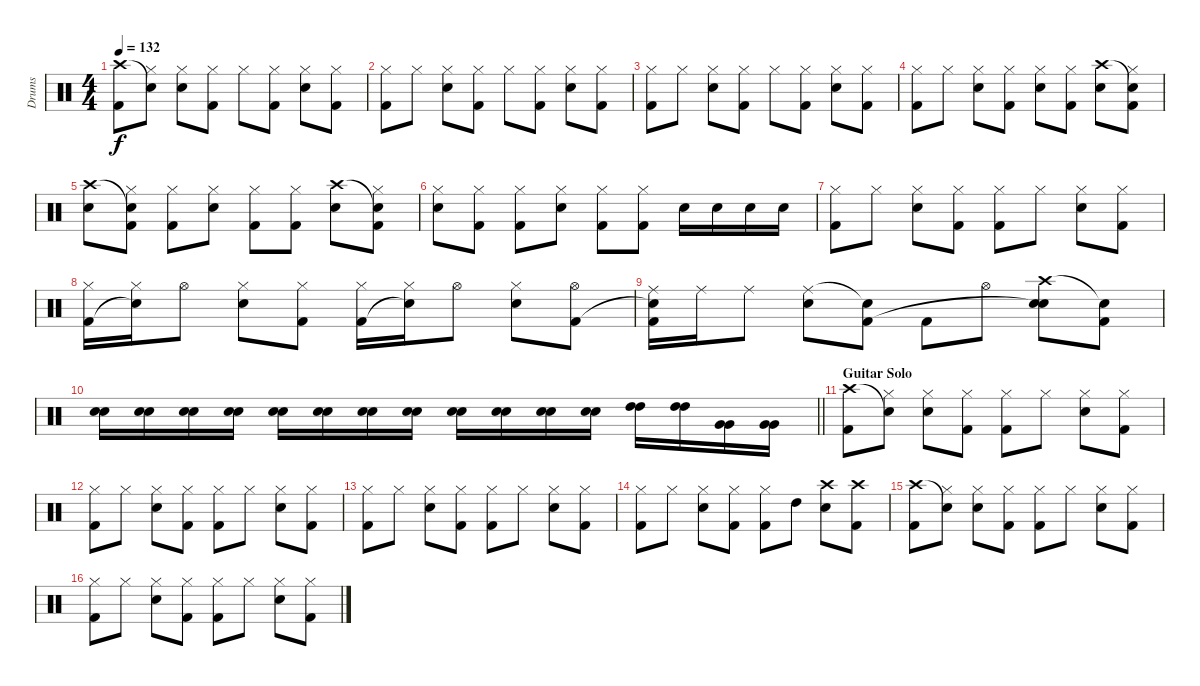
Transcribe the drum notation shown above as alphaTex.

\track ("Drums" "Drums") {instrument percussion}
\staff {score}
\articulation defaults
\ts (4 4)
\tempo 132
\clef neutral
\ks c
("Crash high (hit)" "Kick (hit) 2").8{dy f} ("Snare (hit)"{t} "Hi-Hat (closed)").8 ("Hi-Hat (closed)" "Snare (hit) 2").8 ("Hi-Hat (closed)" "Kick (hit) 2").8 "Hi-Hat (closed)".8 ("Hi-Hat (closed)" "Kick (hit) 2").8 ("Hi-Hat (closed)" "Snare (hit) 2").8 ("Hi-Hat (closed)" "Kick (hit) 2").8 |
("Hi-Hat (closed)" "Kick (hit) 2").8 "Hi-Hat (closed)".8 ("Hi-Hat (closed)" "Snare (hit) 2").8 ("Hi-Hat (closed)" "Kick (hit) 2").8 "Hi-Hat (closed)".8 ("Hi-Hat (closed)" "Kick (hit) 2").8 ("Hi-Hat (closed)" "Snare (hit) 2").8 ("Hi-Hat (closed)" "Kick (hit) 2").8 |
("Hi-Hat (closed)" "Kick (hit) 2").8 "Hi-Hat (closed)".8 ("Hi-Hat (closed)" "Snare (hit) 2").8 ("Hi-Hat (closed)" "Kick (hit) 2").8 "Hi-Hat (closed)".8 ("Hi-Hat (closed)" "Kick (hit) 2").8 ("Hi-Hat (closed)" "Snare (hit) 2").8 ("Hi-Hat (closed)" "Kick (hit) 2").8 |
("Hi-Hat (closed)" "Kick (hit) 2").8 "Hi-Hat (closed)".8 ("Hi-Hat (closed)" "Snare (hit) 2").8 ("Hi-Hat (closed)" "Kick (hit) 2").8 ("Hi-Hat (closed)" "Snare (hit) 2").8 ("Hi-Hat (closed)" "Kick (hit) 2").8 ("Crash high (hit)" "Snare (hit) 2").8 ("Snare (hit)"{t} "Hi-Hat (closed)" "Kick (hit) 2").8 |
("Crash high (hit)" "Snare (hit) 2").8 ("Snare (hit)"{t} "Hi-Hat (closed)" "Kick (hit) 2").8 ("Hi-Hat (closed)" "Kick (hit) 2").8 ("Hi-Hat (closed)" "Snare (hit) 2").8 ("Hi-Hat (closed)" "Kick (hit) 2").8 ("Hi-Hat (closed)" "Kick (hit) 2").8 ("Crash high (hit)" "Snare (hit) 2").8 ("Snare (hit)"{t} "Hi-Hat (closed)" "Kick (hit) 2").8 |
("Hi-Hat (closed)" "Snare (hit) 2").8 ("Hi-Hat (closed)" "Kick (hit) 2").8 ("Hi-Hat (closed)" "Kick (hit) 2").8 ("Hi-Hat (closed)" "Snare (hit) 2").8 ("Hi-Hat (closed)" "Kick (hit) 2").8 ("Hi-Hat (closed)" "Kick (hit) 2").8 "Snare (hit) 2".16 "Snare (hit) 2".16 "Snare (hit) 2".16 "Snare (hit) 2".16 |
("Hi-Hat (closed)" "Kick (hit) 2").8 "Hi-Hat (closed)".8 ("Hi-Hat (closed)" "Snare (hit) 2").8 ("Hi-Hat (closed)" "Kick (hit) 2").8 ("Hi-Hat (closed)" "Kick (hit) 2").8 "Hi-Hat (closed)".8 ("Hi-Hat (closed)" "Snare (hit) 2").8 ("Hi-Hat (closed)" "Kick (hit) 2").8 |
("Hi-Hat (closed)" "Kick (hit) 2").16 ("Hi-Hat (closed)" "Snare (hit)"{t}).16 "Hi-Hat (open)".8 ("Hi-Hat (closed)" "Snare (hit) 2").8 ("Hi-Hat (closed)" "Kick (hit) 2").8 ("Hi-Hat (closed)" "Kick (hit) 2").16 ("Hi-Hat (closed)" "Snare (hit)"{t}).16 "Hi-Hat (open)".8 ("Hi-Hat (closed)" "Snare (hit) 2").8 ("Hi-Hat (open)" "Kick (hit) 2").8 |
("Ride (middle)" "Snare (hit)"{t} "Kick (hit) 2").16 "Ride (middle)".16 "Ride (middle)".8 ("Ride (middle)" "Snare (hit) 2").8 ("Snare (hit)"{t} "Kick (hit) 2").8 "Kick (hit) 2".8 "Hi-Hat (open)".8 ("Crash high (hit)" "Snare (hit)"{t} "Snare (hit) 2").8 ("Snare (hit)"{t} "Kick (hit) 2").8 |
\barLineRight lightlight
("Snare (hit) 2" "Snare (hit) 2").16 ("Snare (hit) 2" "Snare (hit) 2").16 ("Snare (hit) 2" "Snare (hit) 2").16 ("Snare (hit) 2" "Snare (hit) 2").16 ("Snare (hit) 2" "Snare (hit) 2").16 ("Snare (hit) 2" "Snare (hit) 2").16 ("Snare (hit) 2" "Snare (hit) 2").16 ("Snare (hit) 2" "Snare (hit) 2").16 ("Snare (hit) 2" "Snare (hit) 2").16 ("Snare (hit) 2" "Snare (hit) 2").16 ("Snare (hit) 2" "Snare (hit) 2").16 ("Snare (hit) 2" "Snare (hit) 2").16 ("High Tom (hit)" "High Tom (hit)").16 ("High Tom (hit)" "High Tom (hit)").16 ("Very Low Tom (hit)" "Very Low Tom (hit)").16 ("Very Low Tom (hit)" "Very Low Tom (hit)").16 |
\section ("" "Guitar Solo")
("Crash high (hit)" "Kick (hit) 2").8 ("Snare (hit)"{t} "Hi-Hat (closed)").8 ("Hi-Hat (closed)" "Snare (hit) 2").8 ("Hi-Hat (closed)" "Kick (hit) 2").8 ("Hi-Hat (closed)" "Kick (hit) 2").8 "Hi-Hat (closed)".8 ("Hi-Hat (closed)" "Snare (hit) 2").8 ("Hi-Hat (closed)" "Kick (hit) 2").8 |
("Hi-Hat (closed)" "Kick (hit) 2").8 "Hi-Hat (closed)".8 ("Hi-Hat (closed)" "Snare (hit) 2").8 ("Hi-Hat (closed)" "Kick (hit) 2").8 ("Hi-Hat (closed)" "Kick (hit) 2").8 "Hi-Hat (closed)".8 ("Hi-Hat (closed)" "Snare (hit) 2").8 ("Hi-Hat (closed)" "Kick (hit) 2").8 |
("Hi-Hat (closed)" "Kick (hit) 2").8 "Hi-Hat (closed)".8 ("Hi-Hat (closed)" "Snare (hit) 2").8 ("Hi-Hat (closed)" "Kick (hit) 2").8 ("Hi-Hat (closed)" "Kick (hit) 2").8 "Hi-Hat (closed)".8 ("Hi-Hat (closed)" "Snare (hit) 2").8 ("Hi-Hat (closed)" "Kick (hit) 2").8 |
("Hi-Hat (closed)" "Kick (hit) 2").8 "Hi-Hat (closed)".8 ("Hi-Hat (closed)" "Snare (hit) 2").8 ("Hi-Hat (closed)" "Kick (hit) 2").8 ("Hi-Hat (closed)" "Kick (hit) 2").8 "High Tom (hit)".8 ("Crash high (hit)" "Snare (hit) 2").8 ("Crash high (hit)" "Kick (hit) 2").8 |
("Crash high (hit)" "Kick (hit) 2").8 ("Snare (hit)"{t} "Hi-Hat (closed)").8 ("Hi-Hat (closed)" "Snare (hit) 2").8 ("Hi-Hat (closed)" "Kick (hit) 2").8 ("Hi-Hat (closed)" "Kick (hit) 2").8 "Hi-Hat (closed)".8 ("Hi-Hat (closed)" "Snare (hit) 2").8 ("Hi-Hat (closed)" "Kick (hit) 2").8 |
("Hi-Hat (closed)" "Kick (hit) 2").8 "Hi-Hat (closed)".8 ("Hi-Hat (closed)" "Snare (hit) 2").8 ("Hi-Hat (closed)" "Kick (hit) 2").8 ("Hi-Hat (closed)" "Kick (hit) 2").8 "Hi-Hat (closed)".8 ("Hi-Hat (closed)" "Snare (hit) 2").8 ("Hi-Hat (closed)" "Kick (hit) 2").8
